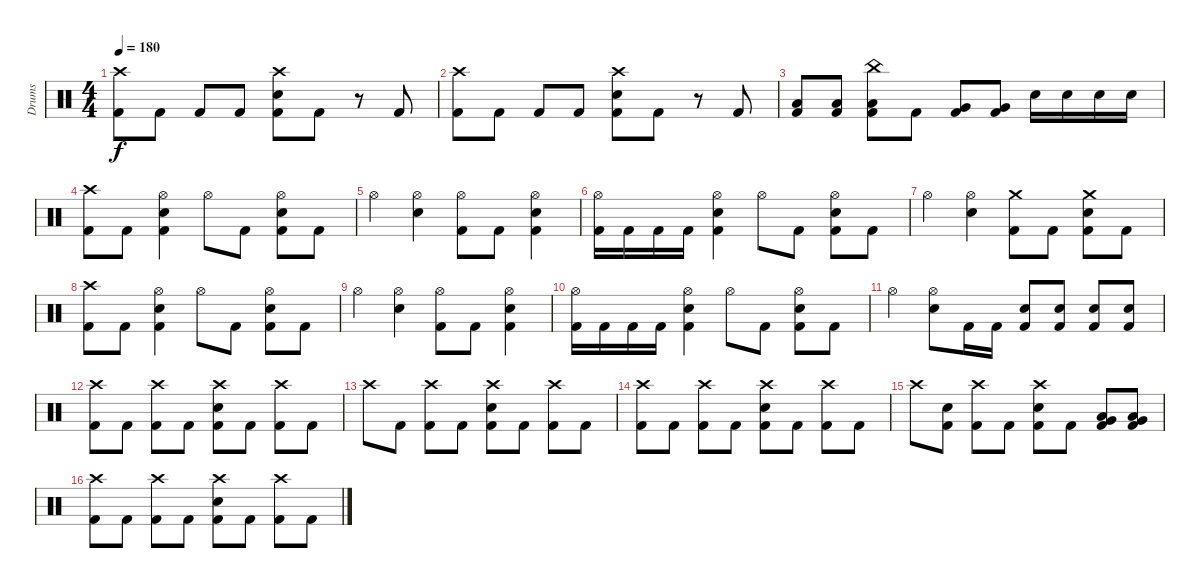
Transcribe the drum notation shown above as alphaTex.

\track ("Drums" "Drums") {instrument percussion}
\staff {score}
\articulation defaults
\ts (4 4)
\tempo 180
\clef neutral
\ks c
("Crash high (hit)" "Kick (hit) 2").8{dy f} "Kick (hit) 2".8 "Kick (hit) 2".8 "Kick (hit) 2".8 ("Crash high (hit)" "Electric Snare (hit)" "Kick (hit) 2").8 "Kick (hit) 2".8 r.8 "Kick (hit) 2".8 |
("Crash high (hit)" "Kick (hit) 2").8 "Kick (hit) 2".8 "Kick (hit) 2".8 "Kick (hit) 2".8 ("Crash high (hit)" "Electric Snare (hit)" "Kick (hit) 2").8 "Kick (hit) 2".8 r.8 "Kick (hit) 2".8 |
("Low Tom (hit)" "Kick (hit) 2").8 ("Low Tom (hit)" "Kick (hit) 2").8 ("China (hit)" "Low Tom (hit)" "Kick (hit) 2").8 "Kick (hit) 2".8 ("Very Low Tom (hit)" "Kick (hit) 2").8 ("Very Low Tom (hit)" "Kick (hit) 2").8 "Electric Snare (hit)".16 "Electric Snare (hit)".16 "Electric Snare (hit)".16 "Electric Snare (hit)".16 |
("Crash high (hit)" "Kick (hit) 2").8 "Kick (hit) 2".8 ("Hi-Hat (open)" "Electric Snare (hit)" "Kick (hit) 2").4 "Hi-Hat (open)".8 "Kick (hit) 2".8 ("Hi-Hat (open)" "Electric Snare (hit)" "Kick (hit) 2").8 "Kick (hit) 2".8 |
"Hi-Hat (open)".4 ("Hi-Hat (open)" "Electric Snare (hit)").4 ("Hi-Hat (open)" "Kick (hit) 2").8 "Kick (hit) 2".8 ("Hi-Hat (open)" "Electric Snare (hit)" "Kick (hit) 2").4 |
("Hi-Hat (open)" "Kick (hit) 2").16 "Kick (hit) 2".16 "Kick (hit) 2".16 "Kick (hit) 2".16 ("Hi-Hat (open)" "Electric Snare (hit)" "Kick (hit) 2").4 "Hi-Hat (open)".8 "Kick (hit) 2".8 ("Hi-Hat (open)" "Electric Snare (hit)" "Kick (hit) 2").8 "Kick (hit) 2".8 |
"Hi-Hat (open)".4 ("Hi-Hat (open)" "Electric Snare (hit)").4 ("Crash medium (hit)" "Kick (hit) 2").8 "Kick (hit) 2".8 ("Crash medium (hit)" "Electric Snare (hit)" "Kick (hit) 2").8 "Kick (hit) 2".8 |
("Crash high (hit)" "Kick (hit) 2").8 "Kick (hit) 2".8 ("Hi-Hat (open)" "Electric Snare (hit)" "Kick (hit) 2").4 "Hi-Hat (open)".8 "Kick (hit) 2".8 ("Hi-Hat (open)" "Electric Snare (hit)" "Kick (hit) 2").8 "Kick (hit) 2".8 |
"Hi-Hat (open)".4 ("Hi-Hat (open)" "Electric Snare (hit)").4 ("Hi-Hat (open)" "Kick (hit) 2").8 "Kick (hit) 2".8 ("Hi-Hat (open)" "Electric Snare (hit)" "Kick (hit) 2").4 |
("Hi-Hat (open)" "Kick (hit) 2").16 "Kick (hit) 2".16 "Kick (hit) 2".16 "Kick (hit) 2".16 ("Hi-Hat (open)" "Electric Snare (hit)" "Kick (hit) 2").4 "Hi-Hat (open)".8 "Kick (hit) 2".8 ("Hi-Hat (open)" "Electric Snare (hit)" "Kick (hit) 2").8 "Kick (hit) 2".8 |
"Hi-Hat (open)".4 ("Hi-Hat (open)" "Electric Snare (hit)").8 "Kick (hit) 2".16 "Kick (hit) 2".16 ("Electric Snare (hit)" "Kick (hit) 2").8 ("Electric Snare (hit)" "Kick (hit) 2").8 ("Electric Snare (hit)" "Kick (hit) 2").8 ("Electric Snare (hit)" "Kick (hit) 2").8 |
("Crash high (hit)" "Kick (hit) 2").8 "Kick (hit) 2".8 ("Crash high (hit)" "Kick (hit) 2").8 "Kick (hit) 2".8 ("Crash high (hit)" "Electric Snare (hit)" "Kick (hit) 2").8 "Kick (hit) 2".8 ("Crash high (hit)" "Kick (hit) 2").8 "Kick (hit) 2".8 |
"Crash high (hit)".8 "Kick (hit) 2".8 ("Crash high (hit)" "Kick (hit) 2").8 "Kick (hit) 2".8 ("Crash high (hit)" "Electric Snare (hit)" "Kick (hit) 2").8 "Kick (hit) 2".8 ("Crash high (hit)" "Kick (hit) 2").8 "Kick (hit) 2".8 |
("Crash high (hit)" "Kick (hit) 2").8 "Kick (hit) 2".8 ("Crash high (hit)" "Kick (hit) 2").8 "Kick (hit) 2".8 ("Crash high (hit)" "Electric Snare (hit)" "Kick (hit) 2").8 "Kick (hit) 2".8 ("Crash high (hit)" "Kick (hit) 2").8 "Kick (hit) 2".8 |
"Crash high (hit)".8 ("Electric Snare (hit)" "Kick (hit) 2").8 ("Crash high (hit)" "Kick (hit) 2").8 "Kick (hit) 2".8 ("Crash high (hit)" "Electric Snare (hit)" "Kick (hit) 2").8 "Kick (hit) 2".8 ("Low Tom (hit)" "Very Low Tom (hit)" "Kick (hit) 2").8 ("Low Tom (hit)" "Very Low Tom (hit)" "Kick (hit) 2").8 |
("Crash high (hit)" "Kick (hit) 2").8 "Kick (hit) 2".8 ("Crash high (hit)" "Kick (hit) 2").8 "Kick (hit) 2".8 ("Crash high (hit)" "Electric Snare (hit)" "Kick (hit) 2").8 "Kick (hit) 2".8 ("Crash high (hit)" "Kick (hit) 2").8 "Kick (hit) 2".8
